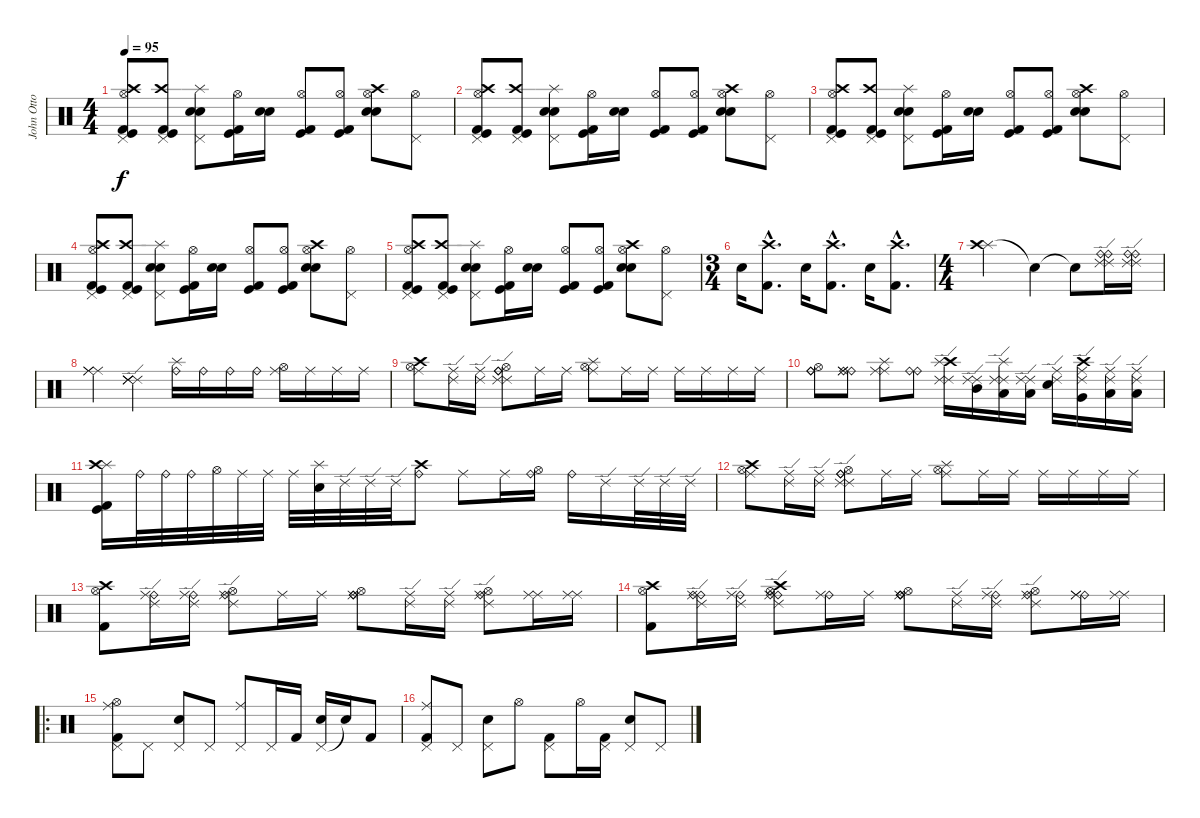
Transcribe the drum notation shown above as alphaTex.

\track ("John Otto (Drums)" "John Otto ") {instrument percussion}
\staff {score}
\articulation defaults
\ts (4 4)
\tempo 95
\clef neutral
\ks c
("Kick (hit)" "Crash high (hit)" "Hi-Hat (open)" "Pedal Hi-Hat (hit)" "Kick (hit) 2").8{dy f} ("Kick (hit)" "Crash high (hit)" "Pedal Hi-Hat (hit)" "Kick (hit) 2").8 ("Electric Snare (hit)" "Splash (hit)" "Pedal Hi-Hat (hit)" "Electric Snare (hit)").8 ("Kick (hit)" "Hi-Hat (open)" "Kick (hit) 2").16 ("Electric Snare (hit)" "Electric Snare (hit)").16 ("Kick (hit)" "Hi-Hat (open)" "Kick (hit) 2").8 ("Kick (hit)" "Hi-Hat (open)" "Kick (hit) 2").8 ("Electric Snare (hit)" "Crash high (hit)" "Hi-Hat (open)" "Electric Snare (hit)").8 ("Hi-Hat (open)" "Pedal Hi-Hat (hit)").8 |
("Kick (hit)" "Crash high (hit)" "Hi-Hat (open)" "Pedal Hi-Hat (hit)" "Kick (hit) 2").8 ("Kick (hit)" "Crash high (hit)" "Pedal Hi-Hat (hit)" "Kick (hit) 2").8 ("Electric Snare (hit)" "Splash (hit)" "Pedal Hi-Hat (hit)" "Electric Snare (hit)").8 ("Kick (hit)" "Hi-Hat (open)" "Kick (hit) 2").16 ("Electric Snare (hit)" "Electric Snare (hit)").16 ("Kick (hit)" "Hi-Hat (open)" "Kick (hit) 2").8 ("Kick (hit)" "Hi-Hat (open)" "Kick (hit) 2").8 ("Electric Snare (hit)" "Crash high (hit)" "Hi-Hat (open)" "Electric Snare (hit)").8 ("Hi-Hat (open)" "Pedal Hi-Hat (hit)").8 |
("Kick (hit)" "Crash high (hit)" "Hi-Hat (open)" "Pedal Hi-Hat (hit)" "Kick (hit) 2").8 ("Kick (hit)" "Crash high (hit)" "Pedal Hi-Hat (hit)" "Kick (hit) 2").8 ("Electric Snare (hit)" "Splash (hit)" "Pedal Hi-Hat (hit)" "Electric Snare (hit)").8 ("Kick (hit)" "Hi-Hat (open)" "Kick (hit) 2").16 ("Electric Snare (hit)" "Electric Snare (hit)").16 ("Kick (hit)" "Hi-Hat (open)" "Kick (hit) 2").8 ("Kick (hit)" "Hi-Hat (open)" "Kick (hit) 2").8 ("Electric Snare (hit)" "Crash high (hit)" "Hi-Hat (open)" "Electric Snare (hit)").8 ("Hi-Hat (open)" "Pedal Hi-Hat (hit)").8 |
("Kick (hit)" "Crash high (hit)" "Hi-Hat (open)" "Pedal Hi-Hat (hit)" "Kick (hit) 2").8 ("Kick (hit)" "Crash high (hit)" "Pedal Hi-Hat (hit)" "Kick (hit) 2").8 ("Electric Snare (hit)" "Splash (hit)" "Pedal Hi-Hat (hit)" "Electric Snare (hit)").8 ("Kick (hit)" "Hi-Hat (open)" "Kick (hit) 2").16 ("Electric Snare (hit)" "Electric Snare (hit)").16 ("Kick (hit)" "Hi-Hat (open)" "Kick (hit) 2").8 ("Kick (hit)" "Hi-Hat (open)" "Kick (hit) 2").8 ("Electric Snare (hit)" "Crash high (hit)" "Hi-Hat (open)" "Electric Snare (hit)").8 ("Hi-Hat (open)" "Pedal Hi-Hat (hit)").8 |
("Kick (hit)" "Crash high (hit)" "Hi-Hat (open)" "Pedal Hi-Hat (hit)" "Kick (hit) 2").8 ("Kick (hit)" "Crash high (hit)" "Pedal Hi-Hat (hit)" "Kick (hit) 2").8 ("Electric Snare (hit)" "Splash (hit)" "Pedal Hi-Hat (hit)" "Electric Snare (hit)").8 ("Kick (hit)" "Hi-Hat (open)" "Kick (hit) 2").16 ("Electric Snare (hit)" "Electric Snare (hit)").16 ("Kick (hit)" "Hi-Hat (open)" "Kick (hit) 2").8 ("Kick (hit)" "Hi-Hat (open)" "Kick (hit) 2").8 ("Electric Snare (hit)" "Crash high (hit)" "Hi-Hat (open)" "Electric Snare (hit)").8 ("Hi-Hat (open)" "Pedal Hi-Hat (hit)").8 |
\ts (3 4)
"Electric Snare (hit)".16 ("Crash high (hit)"{hac} "Kick (hit) 2"{hac}).8{d} "Electric Snare (hit)".16 ("Crash high (hit)"{hac} "Kick (hit) 2"{hac}).8{d} "Electric Snare (hit)".16 ("Crash high (hit)"{hac} "Kick (hit) 2"{hac}).8{d} |
\ts (4 4)
("Splash (hit)" "Crash high (hit)").2 "Snare (hit)"{t}.4 "Snare (hit)"{t}.8 ("Ride (bell)" "Ride (edge) 2" "Ride (edge) 2" "Ride (bell)").16 ("Ride (bell)" "Ride (edge) 2" "Ride (edge) 2" "Ride (bell)").16 |
("Ride (middle)" "Ride (middle)" "Ride (middle)").4 ("Ride (edge) 2" "Ride (edge) 2" "Ride (edge) 2" "Ride (edge) 2").4 ("Splash (hit)" "Ride (bell)").16 "Ride (bell)".16 "Ride (bell)".16 "Ride (bell)".16 ("Hi-Hat (open)" "Ride (middle)").16 "Ride (middle)".16 "Ride (middle)".16 "Ride (middle)".16 |
("Crash high (hit)" "Hi-Hat (open)" "Ride (middle)").8 ("Ride (edge) 2" "Ride (middle)").16 ("Ride (edge) 2" "Ride (middle)").16 ("Hi-Hat (open)" "Ride (edge) 2" "Ride (edge) 2" "Ride (bell)" "Ride (bell)").8 "Ride (middle)".16 "Ride (middle)".16 ("Splash (hit)" "Hi-Hat (open)" "Ride (middle)").8 "Ride (middle)".16 "Ride (middle)".16 "Ride (middle)".16 "Ride (middle)".16 "Ride (middle)".16 "Ride (middle)".16 |
("Ride (bell)" "Hi-Hat (open)" "Ride (bell)").8 ("Ride (bell)" "Ride (middle)" "Ride (bell)" "Ride (middle)").8 ("Ride (middle)" "Splash (hit)" "Ride (middle)").8 ("Ride (bell)" "Ride (bell)").8 ("Crash high (hit)" "Splash (hit)" "Ride (edge) 2" "Ride (edge) 2").16 ("Mid Tom (hit)" "Ride (edge) 2" "Ride (edge) 2").16 ("Low Tom (hit)" "Splash (hit)" "Ride (edge) 2" "Ride (edge) 2").16 ("Low Tom (hit)" "Ride (edge) 2" "Ride (edge) 2").16 ("Snare (hit)" "Ride (middle)" "Ride (edge) 2").16 ("Crash high (hit)" "Very Low Tom (hit)" "Ride (middle)" "Ride (edge) 2").16 ("Low Floor Tom (hit)" "Ride (middle)" "Ride (edge) 2").16 ("Low Floor Tom (hit)" "Ride (middle)" "Ride (edge) 2").16 |
("Splash (hit)" "Crash high (hit)" "Kick (hit)" "Kick (hit) 2").16 "Ride (bell)".32 "Ride (bell)".32 "Ride (bell)".32 "Hi-Hat (open)".32 "Ride (middle)".32 "Ride (middle)".32 "Ride (middle)".32 ("Splash (hit)" "Snare (hit)").32 "Ride (edge) 2".32 "Ride (edge) 2".32 "Ride (edge) 2".32 ("Crash high (hit)" "Ride (bell)").8 "Ride (middle)".8 "Ride (middle)".16 ("Hi-Hat (open)" "Ride (bell)").16 "Ride (bell)".16 "Ride (edge) 2".16 "Ride (edge) 2".32 "Ride (edge) 2".32 "Ride (edge) 2".32 |
("Crash high (hit)" "Hi-Hat (open)" "Ride (middle)").8 ("Ride (edge) 2" "Ride (middle)").16 ("Ride (edge) 2" "Ride (middle)").16 ("Hi-Hat (open)" "Ride (edge) 2" "Ride (edge) 2" "Ride (bell)" "Ride (bell)").8 "Ride (middle)".16 "Ride (middle)".16 ("Splash (hit)" "Hi-Hat (open)" "Ride (middle)").8 "Ride (middle)".16 "Ride (middle)".16 "Ride (middle)".16 "Ride (middle)".16 "Ride (middle)".16 "Ride (middle)".16 |
("Crash high (hit)" "Hi-Hat (open)" "Kick (hit) 2").8 ("Ride (edge) 2" "Ride (bell)" "Ride (middle)").16 ("Ride (edge) 2" "Ride (bell)" "Ride (middle)").16 ("Ride (edge) 2" "Hi-Hat (open)" "Ride (middle)" "Ride (bell)").8 "Ride (middle)".16 "Ride (middle)".16 ("Hi-Hat (open)" "Ride (bell)" "Ride (bell)" "Ride (middle)").8 ("Ride (middle)" "Ride (edge) 2").16 ("Ride (middle)" "Ride (edge) 2").16 ("Hi-Hat (open)" "Ride (edge) 2" "Ride (bell)" "Ride (middle)").8 ("Ride (middle)" "Ride (middle)").16 ("Ride (middle)" "Ride (middle)").16 |
("Crash high (hit)" "Hi-Hat (open)" "Kick (hit) 2").8 ("Ride (bell)" "Ride (edge) 2" "Ride (bell)" "Ride (middle)").16 ("Ride (edge) 2" "Ride (bell)" "Ride (middle)").16 ("Crash high (hit)" "Ride (bell)" "Ride (edge) 2" "Hi-Hat (open)" "Ride (middle)" "Ride (bell)").8 ("Ride (bell)" "Ride (middle)").16 "Ride (middle)".16 ("Ride (bell)" "Hi-Hat (open)" "Ride (bell)" "Ride (bell)" "Ride (middle)").8 ("Ride (middle)" "Ride (edge) 2").16 ("Ride (bell)" "Ride (middle)" "Ride (edge) 2").16 ("Hi-Hat (open)" "Ride (edge) 2" "Ride (bell)" "Ride (middle)").8 ("Ride (bell)" "Ride (middle)" "Ride (middle)").16 ("Ride (middle)" "Ride (middle)").16 |
\ro
("Hi-Hat (open)" "Ride (middle)" "Pedal Hi-Hat (hit)" "Kick (hit) 2").8 "Pedal Hi-Hat (hit)".8 ("Pedal Hi-Hat (hit)" "Electric Snare (hit)").8 "Pedal Hi-Hat (hit)".8 ("Pedal Hi-Hat (hit)" "Ride (middle)").8 "Pedal Hi-Hat (hit)".16 "Kick (hit) 2".16 ("Pedal Hi-Hat (hit)" "Electric Snare (hit)").16 "Snare (hit)"{t}.16 "Kick (hit) 2".8 |
("Ride (middle)" "Pedal Hi-Hat (hit)" "Kick (hit) 2").8 "Pedal Hi-Hat (hit)".8 ("Pedal Hi-Hat (hit)" "Electric Snare (hit)").8 "Hi-Hat (open)".8 ("Pedal Hi-Hat (hit)" "Kick (hit) 2").8 "Hi-Hat (open)".16 ("Pedal Hi-Hat (hit)" "Kick (hit) 2").16 ("Pedal Hi-Hat (hit)" "Electric Snare (hit)").8 "Pedal Hi-Hat (hit)".8
